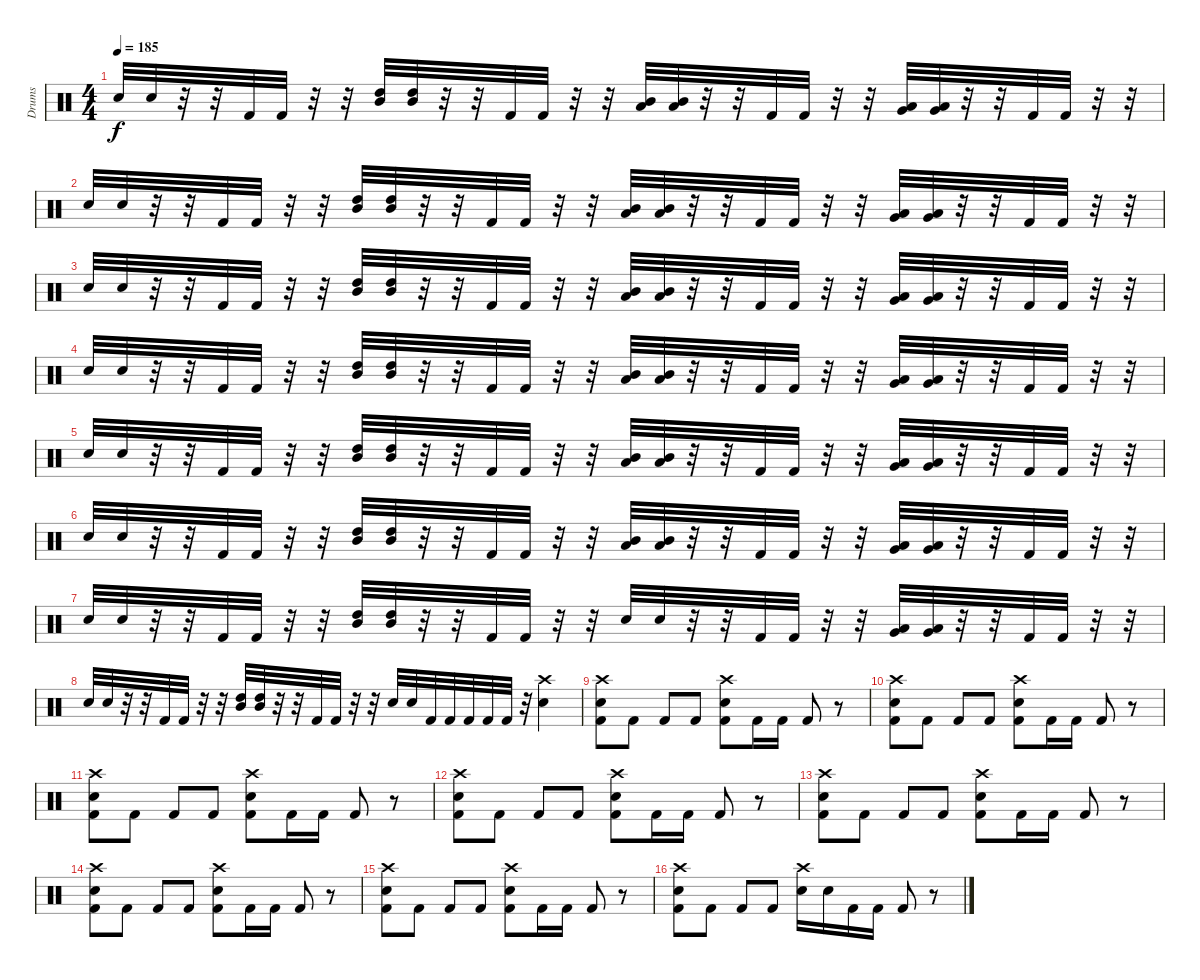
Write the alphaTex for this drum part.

\track ("Drums" "Drums") {instrument percussion}
\staff {score}
\articulation defaults
\ts (4 4)
\tempo 185
\clef neutral
\ks c "Snare (hit) 2".32{dy f} "Snare (hit) 2".32
r.32 r.32 "Kick (hit) 2".32 "Kick (hit) 2".32 r.32 r.32 ("High Tom (hit)" "Mid Tom (hit)").32 ("High Tom (hit)" "Mid Tom (hit)").32 r.32 r.32 "Kick (hit) 2".32 "Kick (hit) 2".32 r.32 r.32 ("Mid Tom (hit)" "Low Tom (hit)").32 ("Mid Tom (hit)" "Low Tom (hit)").32 r.32 r.32 "Kick (hit) 2".32 "Kick (hit) 2".32 r.32 r.32 ("Very Low Tom (hit)" "Low Tom (hit)").32 ("Very Low Tom (hit)" "Low Tom (hit)").32 r.32 r.32 "Kick (hit) 2".32 "Kick (hit) 2".32 r.32 r.32 |
"Snare (hit) 2".32 "Snare (hit) 2".32 r.32 r.32 "Kick (hit) 2".32 "Kick (hit) 2".32 r.32 r.32 ("High Tom (hit)" "Mid Tom (hit)").32 ("High Tom (hit)" "Mid Tom (hit)").32 r.32 r.32 "Kick (hit) 2".32 "Kick (hit) 2".32 r.32 r.32 ("Mid Tom (hit)" "Low Tom (hit)").32 ("Mid Tom (hit)" "Low Tom (hit)").32 r.32 r.32 "Kick (hit) 2".32 "Kick (hit) 2".32 r.32 r.32 ("Very Low Tom (hit)" "Low Tom (hit)").32 ("Very Low Tom (hit)" "Low Tom (hit)").32 r.32 r.32 "Kick (hit) 2".32 "Kick (hit) 2".32 r.32 r.32 |
"Snare (hit) 2".32 "Snare (hit) 2".32 r.32 r.32 "Kick (hit) 2".32 "Kick (hit) 2".32 r.32 r.32 ("High Tom (hit)" "Mid Tom (hit)").32 ("High Tom (hit)" "Mid Tom (hit)").32 r.32 r.32 "Kick (hit) 2".32 "Kick (hit) 2".32 r.32 r.32 ("Mid Tom (hit)" "Low Tom (hit)").32 ("Mid Tom (hit)" "Low Tom (hit)").32 r.32 r.32 "Kick (hit) 2".32 "Kick (hit) 2".32 r.32 r.32 ("Very Low Tom (hit)" "Low Tom (hit)").32 ("Very Low Tom (hit)" "Low Tom (hit)").32 r.32 r.32 "Kick (hit) 2".32 "Kick (hit) 2".32 r.32 r.32 |
"Snare (hit) 2".32 "Snare (hit) 2".32 r.32 r.32 "Kick (hit) 2".32 "Kick (hit) 2".32 r.32 r.32 ("High Tom (hit)" "Mid Tom (hit)").32 ("High Tom (hit)" "Mid Tom (hit)").32 r.32 r.32 "Kick (hit) 2".32 "Kick (hit) 2".32 r.32 r.32 ("Mid Tom (hit)" "Low Tom (hit)").32 ("Mid Tom (hit)" "Low Tom (hit)").32 r.32 r.32 "Kick (hit) 2".32 "Kick (hit) 2".32 r.32 r.32 ("Very Low Tom (hit)" "Low Tom (hit)").32 ("Very Low Tom (hit)" "Low Tom (hit)").32 r.32 r.32 "Kick (hit) 2".32 "Kick (hit) 2".32 r.32 r.32 |
"Snare (hit) 2".32 "Snare (hit) 2".32 r.32 r.32 "Kick (hit) 2".32 "Kick (hit) 2".32 r.32 r.32 ("High Tom (hit)" "Mid Tom (hit)").32 ("High Tom (hit)" "Mid Tom (hit)").32 r.32 r.32 "Kick (hit) 2".32 "Kick (hit) 2".32 r.32 r.32 ("Mid Tom (hit)" "Low Tom (hit)").32 ("Mid Tom (hit)" "Low Tom (hit)").32 r.32 r.32 "Kick (hit) 2".32 "Kick (hit) 2".32 r.32 r.32 ("Very Low Tom (hit)" "Low Tom (hit)").32 ("Very Low Tom (hit)" "Low Tom (hit)").32 r.32 r.32 "Kick (hit) 2".32 "Kick (hit) 2".32 r.32 r.32 |
"Snare (hit) 2".32 "Snare (hit) 2".32 r.32 r.32 "Kick (hit) 2".32 "Kick (hit) 2".32 r.32 r.32 ("High Tom (hit)" "Mid Tom (hit)").32 ("High Tom (hit)" "Mid Tom (hit)").32 r.32 r.32 "Kick (hit) 2".32 "Kick (hit) 2".32 r.32 r.32 ("Mid Tom (hit)" "Low Tom (hit)").32 ("Mid Tom (hit)" "Low Tom (hit)").32 r.32 r.32 "Kick (hit) 2".32 "Kick (hit) 2".32 r.32 r.32 ("Very Low Tom (hit)" "Low Tom (hit)").32 ("Very Low Tom (hit)" "Low Tom (hit)").32 r.32 r.32 "Kick (hit) 2".32 "Kick (hit) 2".32 r.32 r.32 |
"Snare (hit) 2".32 "Snare (hit) 2".32 r.32 r.32 "Kick (hit) 2".32 "Kick (hit) 2".32 r.32 r.32 ("High Tom (hit)" "Mid Tom (hit)").32 ("High Tom (hit)" "Mid Tom (hit)").32 r.32 r.32 "Kick (hit) 2".32 "Kick (hit) 2".32 r.32 r.32 "Snare (hit) 2".32 "Snare (hit) 2".32 r.32 r.32 "Kick (hit) 2".32 "Kick (hit) 2".32 r.32 r.32 ("Very Low Tom (hit)" "Low Tom (hit)").32 ("Very Low Tom (hit)" "Low Tom (hit)").32 r.32 r.32 "Kick (hit) 2".32 "Kick (hit) 2".32 r.32 r.32 |
"Snare (hit) 2".32 "Snare (hit) 2".32 r.32 r.32 "Kick (hit) 2".32 "Kick (hit) 2".32 r.32 r.32 ("High Tom (hit)" "Mid Tom (hit)").32 ("High Tom (hit)" "Mid Tom (hit)").32 r.32 r.32 "Kick (hit) 2".32 "Kick (hit) 2".32 r.32 r.32 "Snare (hit) 2".32 "Snare (hit) 2".32 "Kick (hit) 2".32 "Kick (hit) 2".32 "Kick (hit) 2".32 "Kick (hit) 2".32 "Kick (hit) 2".32 r.32 ("Crash high (hit)" "Snare (hit) 2").4 |
("Crash high (hit)" "Snare (hit) 2" "Kick (hit) 2").8 "Kick (hit) 2".8 "Kick (hit) 2".8 "Kick (hit) 2".8 ("Crash high (hit)" "Snare (hit) 2" "Kick (hit) 2").8 "Kick (hit) 2".16 "Kick (hit) 2".16 "Kick (hit) 2".8 r.8 |
("Crash high (hit)" "Snare (hit) 2" "Kick (hit) 2").8 "Kick (hit) 2".8 "Kick (hit) 2".8 "Kick (hit) 2".8 ("Crash high (hit)" "Snare (hit) 2" "Kick (hit) 2").8 "Kick (hit) 2".16 "Kick (hit) 2".16 "Kick (hit) 2".8 r.8 |
("Crash high (hit)" "Snare (hit) 2" "Kick (hit) 2").8 "Kick (hit) 2".8 "Kick (hit) 2".8 "Kick (hit) 2".8 ("Crash high (hit)" "Snare (hit) 2" "Kick (hit) 2").8 "Kick (hit) 2".16 "Kick (hit) 2".16 "Kick (hit) 2".8 r.8 |
("Crash high (hit)" "Snare (hit) 2" "Kick (hit) 2").8 "Kick (hit) 2".8 "Kick (hit) 2".8 "Kick (hit) 2".8 ("Crash high (hit)" "Snare (hit) 2" "Kick (hit) 2").8 "Kick (hit) 2".16 "Kick (hit) 2".16 "Kick (hit) 2".8 r.8 |
("Crash high (hit)" "Snare (hit) 2" "Kick (hit) 2").8 "Kick (hit) 2".8 "Kick (hit) 2".8 "Kick (hit) 2".8 ("Crash high (hit)" "Snare (hit) 2" "Kick (hit) 2").8 "Kick (hit) 2".16 "Kick (hit) 2".16 "Kick (hit) 2".8 r.8 |
("Crash high (hit)" "Snare (hit) 2" "Kick (hit) 2").8 "Kick (hit) 2".8 "Kick (hit) 2".8 "Kick (hit) 2".8 ("Crash high (hit)" "Snare (hit) 2" "Kick (hit) 2").8 "Kick (hit) 2".16 "Kick (hit) 2".16 "Kick (hit) 2".8 r.8 |
("Crash high (hit)" "Snare (hit) 2" "Kick (hit) 2").8 "Kick (hit) 2".8 "Kick (hit) 2".8 "Kick (hit) 2".8 ("Crash high (hit)" "Snare (hit) 2" "Kick (hit) 2").8 "Kick (hit) 2".16 "Kick (hit) 2".16 "Kick (hit) 2".8 r.8 |
("Crash high (hit)" "Snare (hit) 2" "Kick (hit) 2").8 "Kick (hit) 2".8 "Kick (hit) 2".8 "Kick (hit) 2".8 ("Crash high (hit)" "Snare (hit) 2").16 "Snare (hit) 2".16 "Kick (hit) 2".16 "Kick (hit) 2".16 "Kick (hit) 2".8 r.8
